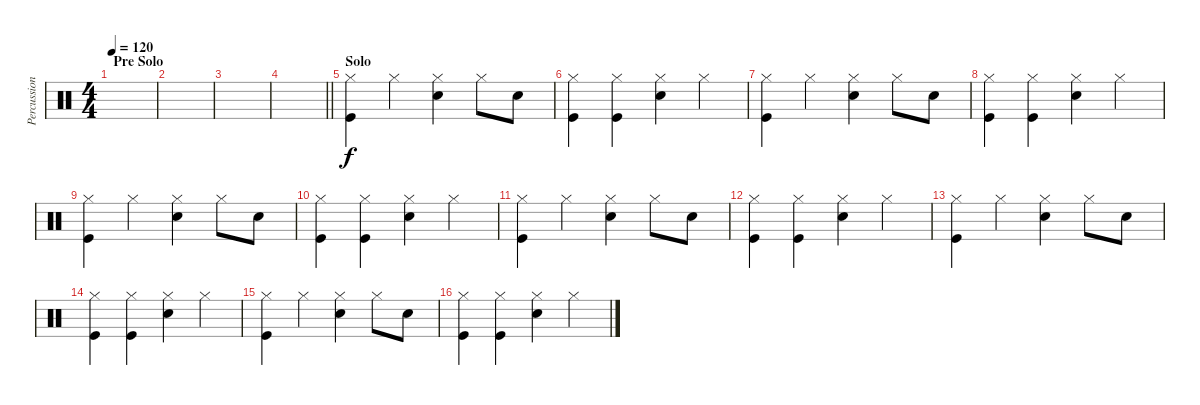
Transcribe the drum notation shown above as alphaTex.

\track ("Percussion" "Percussion") {instrument percussion}
\staff {score}
\articulation defaults
\ts (4 4)
\section ("" "Pre Solo")
\tempo 120
\clef neutral
\ks c
|
|
|
\barLineRight lightlight
|
\section ("" "Solo")
("Hi-Hat (closed)" "Kick (hit)").4 "Hi-Hat (closed)".4 ("Hi-Hat (closed)" "Snare (hit) 2").4 "Hi-Hat (closed)".8 "Snare (hit) 2".8 |
("Hi-Hat (closed)" "Kick (hit)").4 ("Hi-Hat (closed)" "Kick (hit)").4 ("Hi-Hat (closed)" "Snare (hit) 2").4 "Hi-Hat (closed)".4 |
("Hi-Hat (closed)" "Kick (hit)").4 "Hi-Hat (closed)".4 ("Hi-Hat (closed)" "Snare (hit) 2").4 "Hi-Hat (closed)".8 "Snare (hit) 2".8 |
("Hi-Hat (closed)" "Kick (hit)").4 ("Hi-Hat (closed)" "Kick (hit)").4 ("Hi-Hat (closed)" "Snare (hit) 2").4 "Hi-Hat (closed)".4 |
("Hi-Hat (closed)" "Kick (hit)").4 "Hi-Hat (closed)".4 ("Hi-Hat (closed)" "Snare (hit) 2").4 "Hi-Hat (closed)".8 "Snare (hit) 2".8 |
("Hi-Hat (closed)" "Kick (hit)").4 ("Hi-Hat (closed)" "Kick (hit)").4 ("Hi-Hat (closed)" "Snare (hit) 2").4 "Hi-Hat (closed)".4 |
("Hi-Hat (closed)" "Kick (hit)").4 "Hi-Hat (closed)".4 ("Hi-Hat (closed)" "Snare (hit) 2").4 "Hi-Hat (closed)".8 "Snare (hit) 2".8 |
("Hi-Hat (closed)" "Kick (hit)").4 ("Hi-Hat (closed)" "Kick (hit)").4 ("Hi-Hat (closed)" "Snare (hit) 2").4 "Hi-Hat (closed)".4 |
("Hi-Hat (closed)" "Kick (hit)").4 "Hi-Hat (closed)".4 ("Hi-Hat (closed)" "Snare (hit) 2").4 "Hi-Hat (closed)".8 "Snare (hit) 2".8 |
("Hi-Hat (closed)" "Kick (hit)").4 ("Hi-Hat (closed)" "Kick (hit)").4 ("Hi-Hat (closed)" "Snare (hit) 2").4 "Hi-Hat (closed)".4 |
("Hi-Hat (closed)" "Kick (hit)").4 "Hi-Hat (closed)".4 ("Hi-Hat (closed)" "Snare (hit) 2").4 "Hi-Hat (closed)".8 "Snare (hit) 2".8 |
("Hi-Hat (closed)" "Kick (hit)").4 ("Hi-Hat (closed)" "Kick (hit)").4 ("Hi-Hat (closed)" "Snare (hit) 2").4 "Hi-Hat (closed)".4
